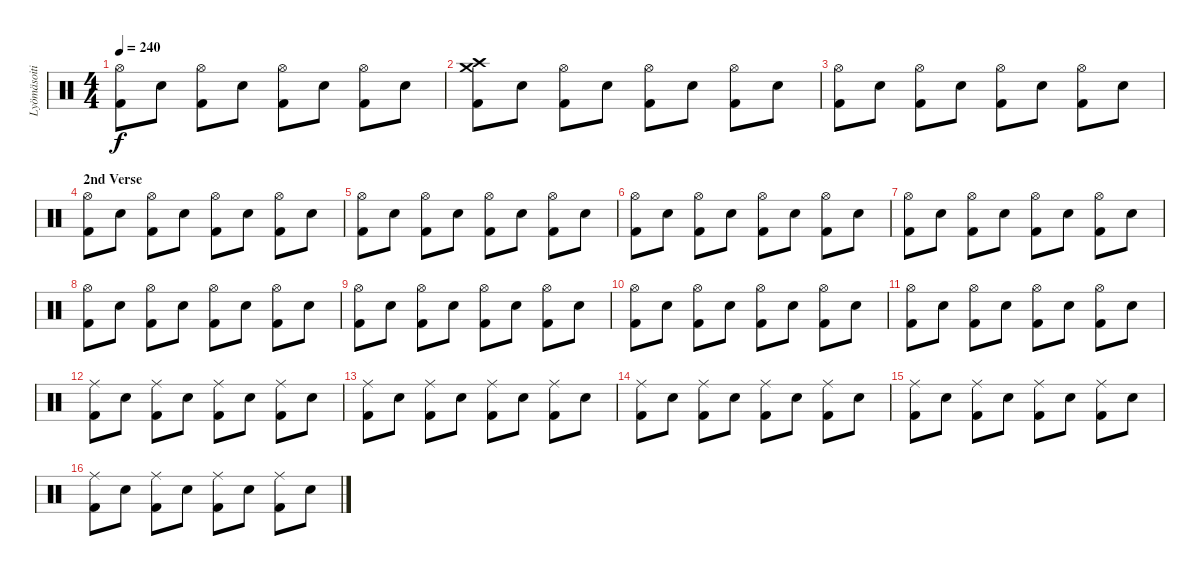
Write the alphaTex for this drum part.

\track ("Lyömäsoitin" "Lyömäsoiti") {instrument percussion}
\staff {score}
\articulation defaults
\ts (4 4)
\tempo 240
\clef neutral
\ks c
("Hi-Hat (open)" "Kick (hit) 2").8{dy f} "Snare (hit) 2".8 ("Hi-Hat (open)" "Kick (hit) 2").8 "Snare (hit) 2".8 ("Hi-Hat (open)" "Kick (hit) 2").8 "Snare (hit) 2".8 ("Hi-Hat (open)" "Kick (hit) 2").8 "Snare (hit) 2".8 |
("Crash high (hit)" "Crash medium (hit)" "Kick (hit) 2").8 "Snare (hit) 2".8 ("Hi-Hat (open)" "Kick (hit) 2").8 "Snare (hit) 2".8 ("Hi-Hat (open)" "Kick (hit) 2").8 "Snare (hit) 2".8 ("Hi-Hat (open)" "Kick (hit) 2").8 "Snare (hit) 2".8 |
("Hi-Hat (open)" "Kick (hit) 2").8 "Snare (hit) 2".8 ("Hi-Hat (open)" "Kick (hit) 2").8 "Snare (hit) 2".8 ("Hi-Hat (open)" "Kick (hit) 2").8 "Snare (hit) 2".8 ("Hi-Hat (open)" "Kick (hit) 2").8 "Snare (hit) 2".8 |
\section ("" "2nd Verse")
("Hi-Hat (open)" "Kick (hit) 2").8 "Snare (hit) 2".8 ("Hi-Hat (open)" "Kick (hit) 2").8 "Snare (hit) 2".8 ("Hi-Hat (open)" "Kick (hit) 2").8 "Snare (hit) 2".8 ("Hi-Hat (open)" "Kick (hit) 2").8 "Snare (hit) 2".8 |
("Hi-Hat (open)" "Kick (hit) 2").8 "Snare (hit) 2".8 ("Hi-Hat (open)" "Kick (hit) 2").8 "Snare (hit) 2".8 ("Hi-Hat (open)" "Kick (hit) 2").8 "Snare (hit) 2".8 ("Hi-Hat (open)" "Kick (hit) 2").8 "Snare (hit) 2".8 |
("Hi-Hat (open)" "Kick (hit) 2").8 "Snare (hit) 2".8 ("Hi-Hat (open)" "Kick (hit) 2").8 "Snare (hit) 2".8 ("Hi-Hat (open)" "Kick (hit) 2").8 "Snare (hit) 2".8 ("Hi-Hat (open)" "Kick (hit) 2").8 "Snare (hit) 2".8 |
("Hi-Hat (open)" "Kick (hit) 2").8 "Snare (hit) 2".8 ("Hi-Hat (open)" "Kick (hit) 2").8 "Snare (hit) 2".8 ("Hi-Hat (open)" "Kick (hit) 2").8 "Snare (hit) 2".8 ("Hi-Hat (open)" "Kick (hit) 2").8 "Snare (hit) 2".8 |
("Hi-Hat (open)" "Kick (hit) 2").8 "Snare (hit) 2".8 ("Hi-Hat (open)" "Kick (hit) 2").8 "Snare (hit) 2".8 ("Hi-Hat (open)" "Kick (hit) 2").8 "Snare (hit) 2".8 ("Hi-Hat (open)" "Kick (hit) 2").8 "Snare (hit) 2".8 |
("Hi-Hat (open)" "Kick (hit) 2").8 "Snare (hit) 2".8 ("Hi-Hat (open)" "Kick (hit) 2").8 "Snare (hit) 2".8 ("Hi-Hat (open)" "Kick (hit) 2").8 "Snare (hit) 2".8 ("Hi-Hat (open)" "Kick (hit) 2").8 "Snare (hit) 2".8 |
("Hi-Hat (open)" "Kick (hit) 2").8 "Snare (hit) 2".8 ("Hi-Hat (open)" "Kick (hit) 2").8 "Snare (hit) 2".8 ("Hi-Hat (open)" "Kick (hit) 2").8 "Snare (hit) 2".8 ("Hi-Hat (open)" "Kick (hit) 2").8 "Snare (hit) 2".8 |
("Hi-Hat (open)" "Kick (hit) 2").8 "Snare (hit) 2".8 ("Hi-Hat (open)" "Kick (hit) 2").8 "Snare (hit) 2".8 ("Hi-Hat (open)" "Kick (hit) 2").8 "Snare (hit) 2".8 ("Hi-Hat (open)" "Kick (hit) 2").8 "Snare (hit) 2".8 |
("Ride (middle)" "Kick (hit) 2").8 "Snare (hit) 2".8 ("Ride (middle)" "Kick (hit) 2").8 "Snare (hit) 2".8 ("Ride (middle)" "Kick (hit) 2").8 "Snare (hit) 2".8 ("Ride (middle)" "Kick (hit) 2").8 "Snare (hit) 2".8 |
("Ride (middle)" "Kick (hit) 2").8 "Snare (hit) 2".8 ("Ride (middle)" "Kick (hit) 2").8 "Snare (hit) 2".8 ("Ride (middle)" "Kick (hit) 2").8 "Snare (hit) 2".8 ("Ride (middle)" "Kick (hit) 2").8 "Snare (hit) 2".8 |
("Ride (middle)" "Kick (hit) 2").8 "Snare (hit) 2".8 ("Ride (middle)" "Kick (hit) 2").8 "Snare (hit) 2".8 ("Ride (middle)" "Kick (hit) 2").8 "Snare (hit) 2".8 ("Ride (middle)" "Kick (hit) 2").8 "Snare (hit) 2".8 |
("Ride (middle)" "Kick (hit) 2").8 "Snare (hit) 2".8 ("Ride (middle)" "Kick (hit) 2").8 "Snare (hit) 2".8 ("Ride (middle)" "Kick (hit) 2").8 "Snare (hit) 2".8 ("Ride (middle)" "Kick (hit) 2").8 "Snare (hit) 2".8 |
("Ride (middle)" "Kick (hit) 2").8 "Snare (hit) 2".8 ("Ride (middle)" "Kick (hit) 2").8 "Snare (hit) 2".8 ("Ride (middle)" "Kick (hit) 2").8 "Snare (hit) 2".8 ("Ride (middle)" "Kick (hit) 2").8 "Snare (hit) 2".8
